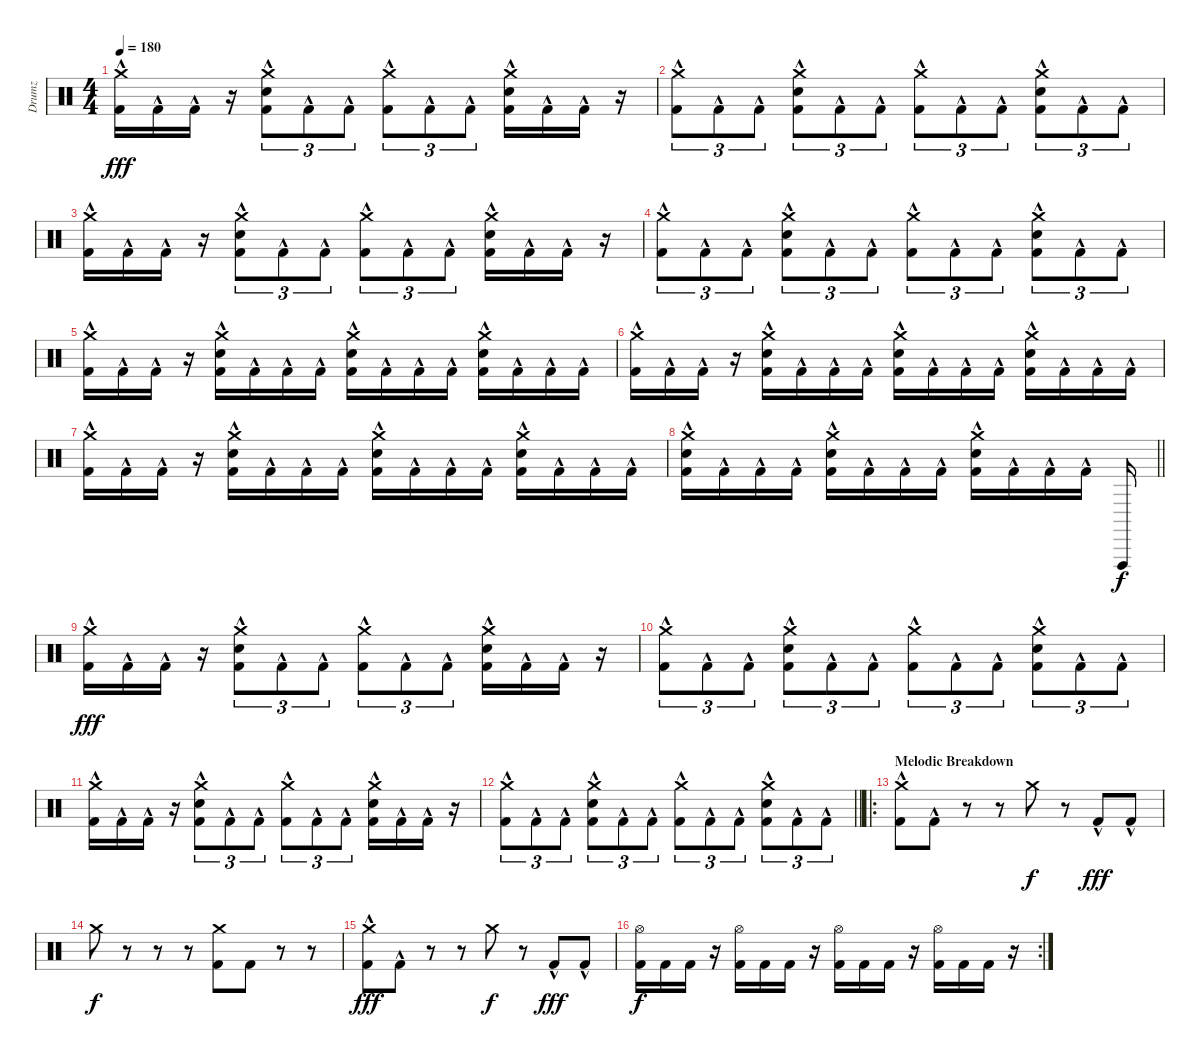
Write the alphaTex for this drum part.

\track ("Drumz" "Drumz") {instrument percussion}
\staff {score}
\articulation defaults
\ts (4 4)
\tempo 180
\clef neutral
\ks c
("Crash medium (hit)" "Kick (hit) 2"{hac}).16{dy fff} "Kick (hit) 2"{hac}.16 "Kick (hit) 2"{hac}.16 r.16 ("Electric Snare (hit)" "Crash medium (hit)" "Kick (hit) 2"{hac}).8{tu (3 2)} "Kick (hit) 2"{hac}.8{tu (3 2)} "Kick (hit) 2"{hac}.8{tu (3 2)} ("Crash medium (hit)" "Kick (hit) 2"{hac}).8{tu (3 2)} "Kick (hit) 2"{hac}.8{tu (3 2)} "Kick (hit) 2"{hac}.8{tu (3 2)} ("Electric Snare (hit)" "Crash medium (hit)" "Kick (hit) 2"{hac}).16 "Kick (hit) 2"{hac}.16 "Kick (hit) 2"{hac}.16 r.16 |
("Crash medium (hit)" "Kick (hit) 2"{hac}).8{tu (3 2)} "Kick (hit) 2"{hac}.8{tu (3 2)} "Kick (hit) 2"{hac}.8{tu (3 2)} ("Electric Snare (hit)" "Crash medium (hit)" "Kick (hit) 2"{hac}).8{tu (3 2)} "Kick (hit) 2"{hac}.8{tu (3 2)} "Kick (hit) 2"{hac}.8{tu (3 2)} ("Crash medium (hit)" "Kick (hit) 2"{hac}).8{tu (3 2)} "Kick (hit) 2"{hac}.8{tu (3 2)} "Kick (hit) 2"{hac}.8{tu (3 2)} ("Electric Snare (hit)" "Crash medium (hit)" "Kick (hit) 2"{hac}).8{tu (3 2)} "Kick (hit) 2"{hac}.8{tu (3 2)} "Kick (hit) 2"{hac}.8{tu (3 2)} |
("Crash medium (hit)" "Kick (hit) 2"{hac}).16 "Kick (hit) 2"{hac}.16 "Kick (hit) 2"{hac}.16 r.16 ("Electric Snare (hit)" "Crash medium (hit)" "Kick (hit) 2"{hac}).8{tu (3 2)} "Kick (hit) 2"{hac}.8{tu (3 2)} "Kick (hit) 2"{hac}.8{tu (3 2)} ("Crash medium (hit)" "Kick (hit) 2"{hac}).8{tu (3 2)} "Kick (hit) 2"{hac}.8{tu (3 2)} "Kick (hit) 2"{hac}.8{tu (3 2)} ("Electric Snare (hit)" "Crash medium (hit)" "Kick (hit) 2"{hac}).16 "Kick (hit) 2"{hac}.16 "Kick (hit) 2"{hac}.16 r.16 |
("Crash medium (hit)" "Kick (hit) 2"{hac}).8{tu (3 2)} "Kick (hit) 2"{hac}.8{tu (3 2)} "Kick (hit) 2"{hac}.8{tu (3 2)} ("Electric Snare (hit)" "Crash medium (hit)" "Kick (hit) 2"{hac}).8{tu (3 2)} "Kick (hit) 2"{hac}.8{tu (3 2)} "Kick (hit) 2"{hac}.8{tu (3 2)} ("Crash medium (hit)" "Kick (hit) 2"{hac}).8{tu (3 2)} "Kick (hit) 2"{hac}.8{tu (3 2)} "Kick (hit) 2"{hac}.8{tu (3 2)} ("Electric Snare (hit)" "Crash medium (hit)" "Kick (hit) 2"{hac}).8{tu (3 2)} "Kick (hit) 2"{hac}.8{tu (3 2)} "Kick (hit) 2"{hac}.8{tu (3 2)} |
("Crash medium (hit)" "Kick (hit) 2"{hac}).16 "Kick (hit) 2"{hac}.16 "Kick (hit) 2"{hac}.16 r.16 ("Electric Snare (hit)" "Crash medium (hit)" "Kick (hit) 2"{hac}).16 "Kick (hit) 2"{hac}.16 "Kick (hit) 2"{hac}.16 "Kick (hit) 2"{hac}.16 ("Electric Snare (hit)" "Crash medium (hit)" "Kick (hit) 2"{hac}).16 "Kick (hit) 2"{hac}.16 "Kick (hit) 2"{hac}.16 "Kick (hit) 2"{hac}.16 ("Electric Snare (hit)" "Crash medium (hit)" "Kick (hit) 2"{hac}).16 "Kick (hit) 2"{hac}.16 "Kick (hit) 2"{hac}.16 "Kick (hit) 2"{hac}.16 |
("Crash medium (hit)" "Kick (hit) 2"{hac}).16 "Kick (hit) 2"{hac}.16 "Kick (hit) 2"{hac}.16 r.16 ("Electric Snare (hit)" "Crash medium (hit)" "Kick (hit) 2"{hac}).16 "Kick (hit) 2"{hac}.16 "Kick (hit) 2"{hac}.16 "Kick (hit) 2"{hac}.16 ("Electric Snare (hit)" "Crash medium (hit)" "Kick (hit) 2"{hac}).16 "Kick (hit) 2"{hac}.16 "Kick (hit) 2"{hac}.16 "Kick (hit) 2"{hac}.16 ("Electric Snare (hit)" "Crash medium (hit)" "Kick (hit) 2"{hac}).16 "Kick (hit) 2"{hac}.16 "Kick (hit) 2"{hac}.16 "Kick (hit) 2"{hac}.16 |
("Crash medium (hit)" "Kick (hit) 2"{hac}).16 "Kick (hit) 2"{hac}.16 "Kick (hit) 2"{hac}.16 r.16 ("Electric Snare (hit)" "Crash medium (hit)" "Kick (hit) 2"{hac}).16 "Kick (hit) 2"{hac}.16 "Kick (hit) 2"{hac}.16 "Kick (hit) 2"{hac}.16 ("Electric Snare (hit)" "Crash medium (hit)" "Kick (hit) 2"{hac}).16 "Kick (hit) 2"{hac}.16 "Kick (hit) 2"{hac}.16 "Kick (hit) 2"{hac}.16 ("Electric Snare (hit)" "Crash medium (hit)" "Kick (hit) 2"{hac}).16 "Kick (hit) 2"{hac}.16 "Kick (hit) 2"{hac}.16 "Kick (hit) 2"{hac}.16 |
\barLineRight lightlight
("Electric Snare (hit)" "Crash medium (hit)" "Kick (hit) 2"{hac}).16 "Kick (hit) 2"{hac}.16 "Kick (hit) 2"{hac}.16 "Kick (hit) 2"{hac}.16 ("Electric Snare (hit)" "Crash medium (hit)" "Kick (hit) 2"{hac}).16 "Kick (hit) 2"{hac}.16 "Kick (hit) 2"{hac}.16 "Kick (hit) 2"{hac}.16 ("Electric Snare (hit)" "Crash medium (hit)" "Kick (hit) 2"{hac}).16 "Kick (hit) 2"{hac}.16 "Kick (hit) 2"{hac}.16 "Kick (hit) 2"{hac}.16 "Vibraslap (hit)".16{dy f} |
("Crash medium (hit)" "Kick (hit) 2"{hac}).16{dy fff} "Kick (hit) 2"{hac}.16 "Kick (hit) 2"{hac}.16 r.16 ("Electric Snare (hit)" "Crash medium (hit)" "Kick (hit) 2"{hac}).8{tu (3 2)} "Kick (hit) 2"{hac}.8{tu (3 2)} "Kick (hit) 2"{hac}.8{tu (3 2)} ("Crash medium (hit)" "Kick (hit) 2"{hac}).8{tu (3 2)} "Kick (hit) 2"{hac}.8{tu (3 2)} "Kick (hit) 2"{hac}.8{tu (3 2)} ("Electric Snare (hit)" "Crash medium (hit)" "Kick (hit) 2"{hac}).16 "Kick (hit) 2"{hac}.16 "Kick (hit) 2"{hac}.16 r.16 |
("Crash medium (hit)" "Kick (hit) 2"{hac}).8{tu (3 2)} "Kick (hit) 2"{hac}.8{tu (3 2)} "Kick (hit) 2"{hac}.8{tu (3 2)} ("Electric Snare (hit)" "Crash medium (hit)" "Kick (hit) 2"{hac}).8{tu (3 2)} "Kick (hit) 2"{hac}.8{tu (3 2)} "Kick (hit) 2"{hac}.8{tu (3 2)} ("Crash medium (hit)" "Kick (hit) 2"{hac}).8{tu (3 2)} "Kick (hit) 2"{hac}.8{tu (3 2)} "Kick (hit) 2"{hac}.8{tu (3 2)} ("Electric Snare (hit)" "Crash medium (hit)" "Kick (hit) 2"{hac}).8{tu (3 2)} "Kick (hit) 2"{hac}.8{tu (3 2)} "Kick (hit) 2"{hac}.8{tu (3 2)} |
("Crash medium (hit)" "Kick (hit) 2"{hac}).16 "Kick (hit) 2"{hac}.16 "Kick (hit) 2"{hac}.16 r.16 ("Electric Snare (hit)" "Crash medium (hit)" "Kick (hit) 2"{hac}).8{tu (3 2)} "Kick (hit) 2"{hac}.8{tu (3 2)} "Kick (hit) 2"{hac}.8{tu (3 2)} ("Crash medium (hit)" "Kick (hit) 2"{hac}).8{tu (3 2)} "Kick (hit) 2"{hac}.8{tu (3 2)} "Kick (hit) 2"{hac}.8{tu (3 2)} ("Electric Snare (hit)" "Crash medium (hit)" "Kick (hit) 2"{hac}).16 "Kick (hit) 2"{hac}.16 "Kick (hit) 2"{hac}.16 r.16 |
\barLineRight lightlight
("Crash medium (hit)" "Kick (hit) 2"{hac}).8{tu (3 2)} "Kick (hit) 2"{hac}.8{tu (3 2)} "Kick (hit) 2"{hac}.8{tu (3 2)} ("Electric Snare (hit)" "Crash medium (hit)" "Kick (hit) 2"{hac}).8{tu (3 2)} "Kick (hit) 2"{hac}.8{tu (3 2)} "Kick (hit) 2"{hac}.8{tu (3 2)} ("Crash medium (hit)" "Kick (hit) 2"{hac}).8{tu (3 2)} "Kick (hit) 2"{hac}.8{tu (3 2)} "Kick (hit) 2"{hac}.8{tu (3 2)} ("Electric Snare (hit)" "Crash medium (hit)" "Kick (hit) 2"{hac}).8{tu (3 2)} "Kick (hit) 2"{hac}.8{tu (3 2)} "Kick (hit) 2"{hac}.8{tu (3 2)} |
\ro
\section ("" "Melodic Breakdown")
("Crash medium (hit)" "Kick (hit) 2"{hac}).8 "Kick (hit) 2"{hac}.8 r.8 r.8 "Crash medium (hit)".8{dy f} r.8 "Kick (hit) 2"{hac}.8{dy fff} "Kick (hit) 2"{hac}.8 |
"Crash medium (hit)".8{dy f} r.8 r.8 r.8 ("Crash medium (hit)" "Kick (hit) 2").8 "Kick (hit) 2".8 r.8 r.8 |
("Crash medium (hit)" "Kick (hit) 2"{hac}).8{dy fff} "Kick (hit) 2"{hac}.8 r.8 r.8 "Crash medium (hit)".8{dy f} r.8 "Kick (hit) 2"{hac}.8{dy fff} "Kick (hit) 2"{hac}.8 |
\rc 2
("Hi-Hat (open)" "Kick (hit) 2").16{dy f} "Kick (hit) 2".16 "Kick (hit) 2".16 r.16 ("Hi-Hat (open)" "Kick (hit) 2").16 "Kick (hit) 2".16 "Kick (hit) 2".16 r.16 ("Hi-Hat (open)" "Kick (hit) 2").16 "Kick (hit) 2".16 "Kick (hit) 2".16 r.16 ("Hi-Hat (open)" "Kick (hit) 2").16 "Kick (hit) 2".16 "Kick (hit) 2".16 r.16
